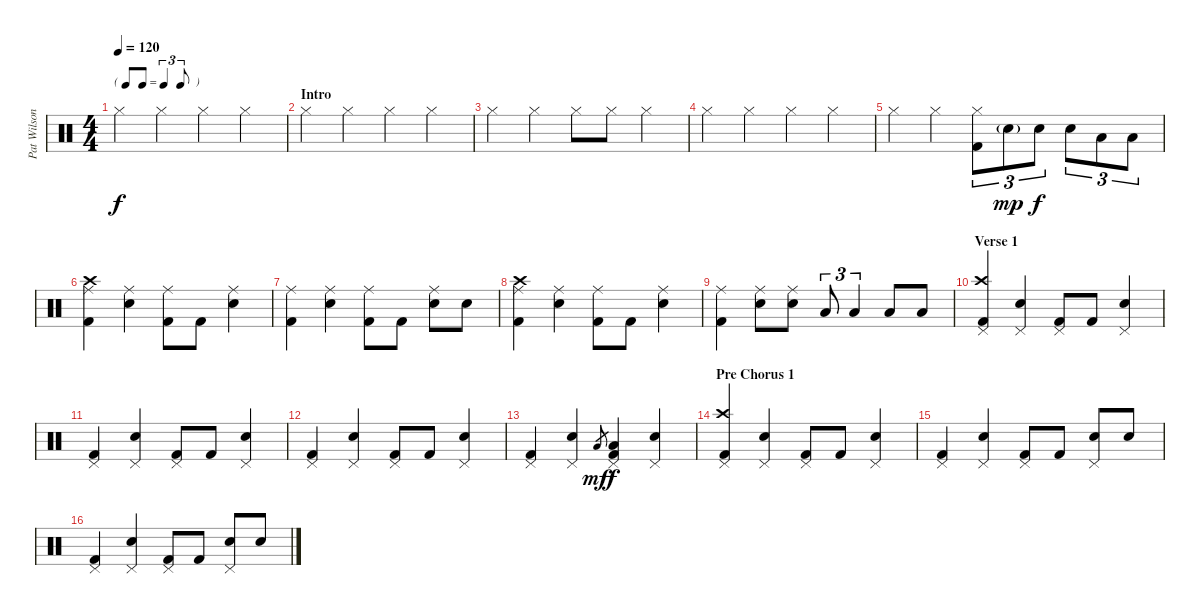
\track ("Pat Wilson - Drums" "Pat Wilson") {instrument percussion}
\staff {score}
\articulation defaults
\ts (4 4)
\tf triplet8th
\tempo 120
\clef neutral
\ks c "Hi-Hat (closed)".4{dy f} "Hi-Hat (closed)".4 "Hi-Hat (closed)".4 "Hi-Hat (closed)".4
|
\section ("" "Intro")
"Hi-Hat (closed)".4 "Hi-Hat (closed)".4 "Hi-Hat (closed)".4 "Hi-Hat (closed)".4 |
"Hi-Hat (closed)".4 "Hi-Hat (closed)".4 "Hi-Hat (closed)".8 "Hi-Hat (closed)".8 "Hi-Hat (closed)".4 |
"Hi-Hat (closed)".4 "Hi-Hat (closed)".4 "Hi-Hat (closed)".4 "Hi-Hat (closed)".4 |
"Hi-Hat (closed)".4 "Hi-Hat (closed)".4 ("Hi-Hat (closed)" "Kick (hit) 2").8{tu (3 2)} "Electric Snare (hit)"{g}.8{tu (3 2) dy mp} "Electric Snare (hit)".8{tu (3 2) dy f} "Electric Snare (hit)".8{tu (3 2)} "Low Tom (hit)".8{tu (3 2)} "Low Tom (hit)".8{tu (3 2)} |
("Ride (middle)" "Kick (hit) 2" "Crash high (hit)").4 ("Ride (middle)" "Electric Snare (hit)").4 ("Ride (middle)" "Kick (hit) 2").8 "Kick (hit) 2".8 ("Ride (middle)" "Electric Snare (hit)").4 |
("Ride (middle)" "Kick (hit) 2").4 ("Ride (middle)" "Electric Snare (hit)").4 ("Ride (middle)" "Kick (hit) 2").8 "Kick (hit) 2".8 ("Ride (middle)" "Electric Snare (hit)").8 "Electric Snare (hit)".8 |
("Ride (middle)" "Kick (hit) 2" "Crash high (hit)").4 ("Ride (middle)" "Electric Snare (hit)").4 ("Ride (middle)" "Kick (hit) 2").8 "Kick (hit) 2".8 ("Ride (middle)" "Electric Snare (hit)").4 |
("Ride (middle)" "Kick (hit) 2").4 ("Ride (middle)" "Electric Snare (hit)").8 ("Ride (middle)" "Electric Snare (hit)").8 "Low Tom (hit)".8{tu (3 2)} "Low Tom (hit)".4{tu (3 2)} "Low Tom (hit)".8 "Low Tom (hit)".8 |
\section ("" "Verse 1")
("Pedal Hi-Hat (hit)" "Kick (hit) 2" "Crash high (hit)").4 ("Pedal Hi-Hat (hit)" "Electric Snare (hit)").4 ("Pedal Hi-Hat (hit)" "Kick (hit) 2").8 "Kick (hit) 2".8 ("Pedal Hi-Hat (hit)" "Electric Snare (hit)").4 |
("Pedal Hi-Hat (hit)" "Kick (hit) 2").4 ("Pedal Hi-Hat (hit)" "Electric Snare (hit)").4 ("Pedal Hi-Hat (hit)" "Kick (hit) 2").8 "Kick (hit) 2".8 ("Pedal Hi-Hat (hit)" "Electric Snare (hit)").4 |
("Pedal Hi-Hat (hit)" "Kick (hit) 2").4 ("Pedal Hi-Hat (hit)" "Electric Snare (hit)").4 ("Pedal Hi-Hat (hit)" "Kick (hit) 2").8 "Kick (hit) 2".8 ("Pedal Hi-Hat (hit)" "Electric Snare (hit)").4 |
("Pedal Hi-Hat (hit)" "Kick (hit) 2").4 ("Pedal Hi-Hat (hit)" "Electric Snare (hit)").4 "Low Tom (hit)".8{gr dy mf} ("Pedal Hi-Hat (hit)" "Kick (hit) 2" "Low Tom (hit)").4{dy f} ("Pedal Hi-Hat (hit)" "Electric Snare (hit)").4 |
\section ("" "Pre Chorus 1")
("Pedal Hi-Hat (hit)" "Kick (hit) 2" "Crash high (hit)").4 ("Pedal Hi-Hat (hit)" "Electric Snare (hit)").4 ("Pedal Hi-Hat (hit)" "Kick (hit) 2").8 "Kick (hit) 2".8 ("Pedal Hi-Hat (hit)" "Electric Snare (hit)").4 |
("Pedal Hi-Hat (hit)" "Kick (hit) 2").4 ("Pedal Hi-Hat (hit)" "Electric Snare (hit)").4 ("Pedal Hi-Hat (hit)" "Kick (hit) 2").8 "Kick (hit) 2".8 ("Pedal Hi-Hat (hit)" "Electric Snare (hit)").8 "Electric Snare (hit)".8 |
("Pedal Hi-Hat (hit)" "Kick (hit) 2").4 ("Pedal Hi-Hat (hit)" "Electric Snare (hit)").4 ("Pedal Hi-Hat (hit)" "Kick (hit) 2").8 "Kick (hit) 2".8 ("Pedal Hi-Hat (hit)" "Electric Snare (hit)").8 "Electric Snare (hit)".8
